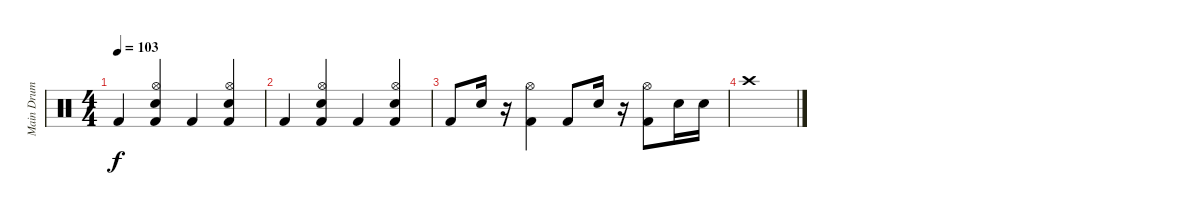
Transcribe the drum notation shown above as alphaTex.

\track ("Main Drum" "Main Drum") {instrument percussion}
\staff {score}
\articulation defaults
\ts (4 4)
\tempo 103
\clef neutral
\ks c "Kick (hit) 2".4{dy f}
("Hi-Hat (open)" "Electric Snare (hit)" "Kick (hit) 2").4 "Kick (hit) 2".4 ("Hi-Hat (open)" "Electric Snare (hit)" "Kick (hit) 2").4 |
"Kick (hit) 2".4 ("Hi-Hat (open)" "Electric Snare (hit)" "Kick (hit) 2").4 "Kick (hit) 2".4 ("Hi-Hat (open)" "Electric Snare (hit)" "Kick (hit) 2").4 |
"Kick (hit) 2".8 "Electric Snare (hit)".16 r.16 ("Hi-Hat (open)" "Kick (hit) 2").4 "Kick (hit) 2".8 "Electric Snare (hit)".16 r.16 ("Hi-Hat (open)" "Kick (hit) 2").8 "Electric Snare (hit)".16 "Electric Snare (hit)".16 |
"Crash high (hit)".1
